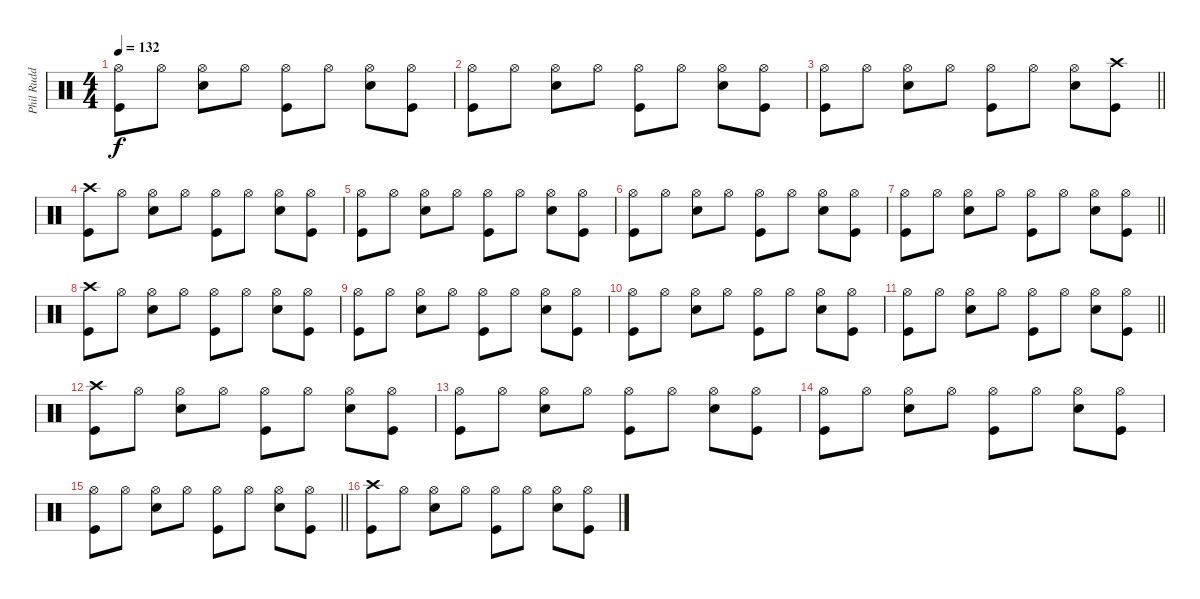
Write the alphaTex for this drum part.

\track ("Phil Rudd" "Phil Rudd") {instrument percussion}
\staff {score}
\articulation defaults
\ts (4 4)
\tempo 132
\clef neutral
\ks c
("Hi-Hat (open)" "Kick (hit)").8{dy f} "Hi-Hat (open)".8 ("Hi-Hat (open)" "Snare (hit) 2").8 "Hi-Hat (open)".8 ("Hi-Hat (open)" "Kick (hit)").8 "Hi-Hat (open)".8 ("Hi-Hat (open)" "Snare (hit) 2").8 ("Hi-Hat (open)" "Kick (hit)").8 |
("Hi-Hat (open)" "Kick (hit)").8 "Hi-Hat (open)".8 ("Hi-Hat (open)" "Snare (hit) 2").8 "Hi-Hat (open)".8 ("Hi-Hat (open)" "Kick (hit)").8 "Hi-Hat (open)".8 ("Hi-Hat (open)" "Snare (hit) 2").8 ("Hi-Hat (open)" "Kick (hit)").8 |
\barLineRight lightlight
("Hi-Hat (open)" "Kick (hit)").8 "Hi-Hat (open)".8 ("Hi-Hat (open)" "Snare (hit) 2").8 "Hi-Hat (open)".8 ("Hi-Hat (open)" "Kick (hit)").8 "Hi-Hat (open)".8 ("Hi-Hat (open)" "Snare (hit) 2").8 ("Crash high (hit)" "Kick (hit)").8 |
\section ("" " ")
("Crash high (hit)" "Kick (hit)").8 "Hi-Hat (open)".8 ("Hi-Hat (open)" "Snare (hit) 2").8 "Hi-Hat (open)".8 ("Hi-Hat (open)" "Kick (hit)").8 "Hi-Hat (open)".8 ("Hi-Hat (open)" "Snare (hit) 2").8 ("Hi-Hat (open)" "Kick (hit)").8 |
("Hi-Hat (open)" "Kick (hit)").8 "Hi-Hat (open)".8 ("Hi-Hat (open)" "Snare (hit) 2").8 "Hi-Hat (open)".8 ("Hi-Hat (open)" "Kick (hit)").8 "Hi-Hat (open)".8 ("Hi-Hat (open)" "Snare (hit) 2").8 ("Hi-Hat (open)" "Kick (hit)").8 |
("Hi-Hat (open)" "Kick (hit)").8 "Hi-Hat (open)".8 ("Hi-Hat (open)" "Snare (hit) 2").8 "Hi-Hat (open)".8 ("Hi-Hat (open)" "Kick (hit)").8 "Hi-Hat (open)".8 ("Hi-Hat (open)" "Snare (hit) 2").8 ("Hi-Hat (open)" "Kick (hit)").8 |
\barLineRight lightlight
("Hi-Hat (open)" "Kick (hit)").8 "Hi-Hat (open)".8 ("Hi-Hat (open)" "Snare (hit) 2").8 "Hi-Hat (open)".8 ("Hi-Hat (open)" "Kick (hit)").8 "Hi-Hat (open)".8 ("Hi-Hat (open)" "Snare (hit) 2").8 ("Hi-Hat (open)" "Kick (hit)").8 |
("Crash high (hit)" "Kick (hit)").8 "Hi-Hat (open)".8 ("Hi-Hat (open)" "Snare (hit) 2").8 "Hi-Hat (open)".8 ("Hi-Hat (open)" "Kick (hit)").8 "Hi-Hat (open)".8 ("Hi-Hat (open)" "Snare (hit) 2").8 ("Hi-Hat (open)" "Kick (hit)").8 |
("Hi-Hat (open)" "Kick (hit)").8 "Hi-Hat (open)".8 ("Hi-Hat (open)" "Snare (hit) 2").8 "Hi-Hat (open)".8 ("Hi-Hat (open)" "Kick (hit)").8 "Hi-Hat (open)".8 ("Hi-Hat (open)" "Snare (hit) 2").8 ("Hi-Hat (open)" "Kick (hit)").8 |
("Hi-Hat (open)" "Kick (hit)").8 "Hi-Hat (open)".8 ("Hi-Hat (open)" "Snare (hit) 2").8 "Hi-Hat (open)".8 ("Hi-Hat (open)" "Kick (hit)").8 "Hi-Hat (open)".8 ("Hi-Hat (open)" "Snare (hit) 2").8 ("Hi-Hat (open)" "Kick (hit)").8 |
\barLineRight lightlight
("Hi-Hat (open)" "Kick (hit)").8 "Hi-Hat (open)".8 ("Hi-Hat (open)" "Snare (hit) 2").8 "Hi-Hat (open)".8 ("Hi-Hat (open)" "Kick (hit)").8 "Hi-Hat (open)".8 ("Hi-Hat (open)" "Snare (hit) 2").8 ("Hi-Hat (open)" "Kick (hit)").8 |
("Crash high (hit)" "Kick (hit)").8 "Hi-Hat (open)".8 ("Hi-Hat (open)" "Snare (hit) 2").8 "Hi-Hat (open)".8 ("Hi-Hat (open)" "Kick (hit)").8 "Hi-Hat (open)".8 ("Hi-Hat (open)" "Snare (hit) 2").8 ("Hi-Hat (open)" "Kick (hit)").8 |
("Hi-Hat (open)" "Kick (hit)").8 "Hi-Hat (open)".8 ("Hi-Hat (open)" "Snare (hit) 2").8 "Hi-Hat (open)".8 ("Hi-Hat (open)" "Kick (hit)").8 "Hi-Hat (open)".8 ("Hi-Hat (open)" "Snare (hit) 2").8 ("Hi-Hat (open)" "Kick (hit)").8 |
("Hi-Hat (open)" "Kick (hit)").8 "Hi-Hat (open)".8 ("Hi-Hat (open)" "Snare (hit) 2").8 "Hi-Hat (open)".8 ("Hi-Hat (open)" "Kick (hit)").8 "Hi-Hat (open)".8 ("Hi-Hat (open)" "Snare (hit) 2").8 ("Hi-Hat (open)" "Kick (hit)").8 |
\barLineRight lightlight
("Hi-Hat (open)" "Kick (hit)").8 "Hi-Hat (open)".8 ("Hi-Hat (open)" "Snare (hit) 2").8 "Hi-Hat (open)".8 ("Hi-Hat (open)" "Kick (hit)").8 "Hi-Hat (open)".8 ("Hi-Hat (open)" "Snare (hit) 2").8 ("Hi-Hat (open)" "Kick (hit)").8 |
("Crash high (hit)" "Kick (hit)").8 "Hi-Hat (open)".8 ("Hi-Hat (open)" "Snare (hit) 2").8 "Hi-Hat (open)".8 ("Hi-Hat (open)" "Kick (hit)").8 "Hi-Hat (open)".8 ("Hi-Hat (open)" "Snare (hit) 2").8 ("Hi-Hat (open)" "Kick (hit)").8
